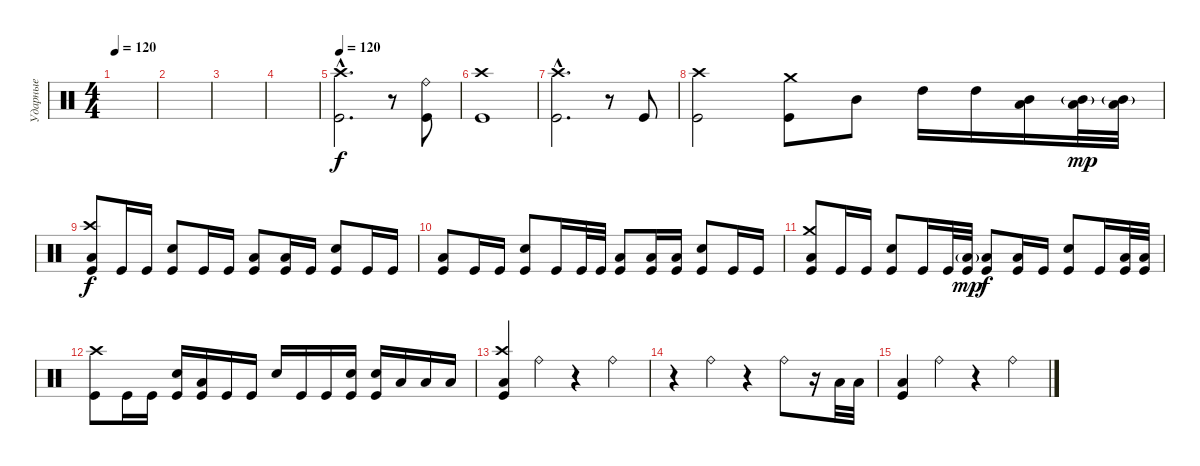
\track ("Ударные" "Ударные") {instrument percussion}
\staff {score}
\articulation defaults
\ts (4 4)
\tempo 120
\tempo 95
\tempo 120
\clef neutral
\ks c
|
|
|
|
\tempo 120
("Kick (hit)"{hac} "Crash high (hit)"{hac}).2{d} r.8 ("Ride (bell)" "Kick (hit)").8 |
("Crash high (hit)" "Kick (hit)").1 |
("Kick (hit)"{hac} "Crash high (hit)"{hac}).2{d} r.8 "Kick (hit)".8 |
("Crash high (hit)" "Kick (hit)").2 ("Crash medium (hit)" "Kick (hit)").8 "Mid Tom (hit)".8 "High Tom (hit)".16 "High Tom (hit)".16 ("Mid Tom (hit)" "Low Tom (hit)").16 ("Mid Tom (hit)"{g} "Low Tom (hit)").32{dy mp} ("Mid Tom (hit)"{g} "Low Tom (hit)").32 |
("Crash high (hit)" "Low Tom (hit)" "Kick (hit)").8{dy f} "Kick (hit)".16 "Kick (hit)".16 ("Electric Snare (hit)" "Kick (hit)").8 "Kick (hit)".16 "Kick (hit)".16 ("Low Tom (hit)" "Kick (hit)").8 ("Low Tom (hit)" "Kick (hit)").16 "Kick (hit)".16 ("Electric Snare (hit)" "Kick (hit)").8 "Kick (hit)".16 "Kick (hit)".16 |
("Low Tom (hit)" "Kick (hit)").8 "Kick (hit)".16 "Kick (hit)".16 ("Electric Snare (hit)" "Kick (hit)").8 "Kick (hit)".16 "Kick (hit)".32 "Kick (hit)".32 ("Low Tom (hit)" "Kick (hit)").8 ("Low Tom (hit)" "Kick (hit)").16 ("Low Tom (hit)" "Kick (hit)").16 ("Electric Snare (hit)" "Kick (hit)").8 "Kick (hit)".16 "Kick (hit)".16 |
("Crash medium (hit)" "Low Tom (hit)" "Kick (hit)").8 "Kick (hit)".16 "Kick (hit)".16 ("Electric Snare (hit)" "Kick (hit)").8 "Kick (hit)".16 "Kick (hit)".32 ("Low Tom (hit)"{g} "Kick (hit)").32{dy mp} ("Low Tom (hit)" "Kick (hit)").8{dy f} ("Low Tom (hit)" "Kick (hit)").16 "Kick (hit)".16 ("Electric Snare (hit)" "Kick (hit)").8 "Kick (hit)".16 ("Low Tom (hit)" "Kick (hit)").32 ("Low Tom (hit)" "Kick (hit)").32 |
("Crash high (hit)" "Kick (hit)").8 "Kick (hit)".16 "Kick (hit)".16 ("Electric Snare (hit)" "Kick (hit)").16 ("Low Tom (hit)" "Kick (hit)").16 "Kick (hit)".16 "Kick (hit)".16 "Electric Snare (hit)".16 "Kick (hit)".16 "Kick (hit)".16 ("Electric Snare (hit)" "Kick (hit)").16 ("Electric Snare (hit)" "Kick (hit)").16 "Low Tom (hit)".16 "Low Tom (hit)".16 "Low Tom (hit)".16 |
("Kick (hit)" "Low Tom (hit)" "Crash high (hit)").4 "Ride (bell)".4 r.4 "Ride (bell)".4 |
r.4 "Ride (bell)".4 r.4 "Ride (bell)".8 r.16 "Low Tom (hit)".32 "Low Tom (hit)".32 |
("Kick (hit)" "Low Tom (hit)").4 "Ride (bell)".4 r.4 "Ride (bell)".4
